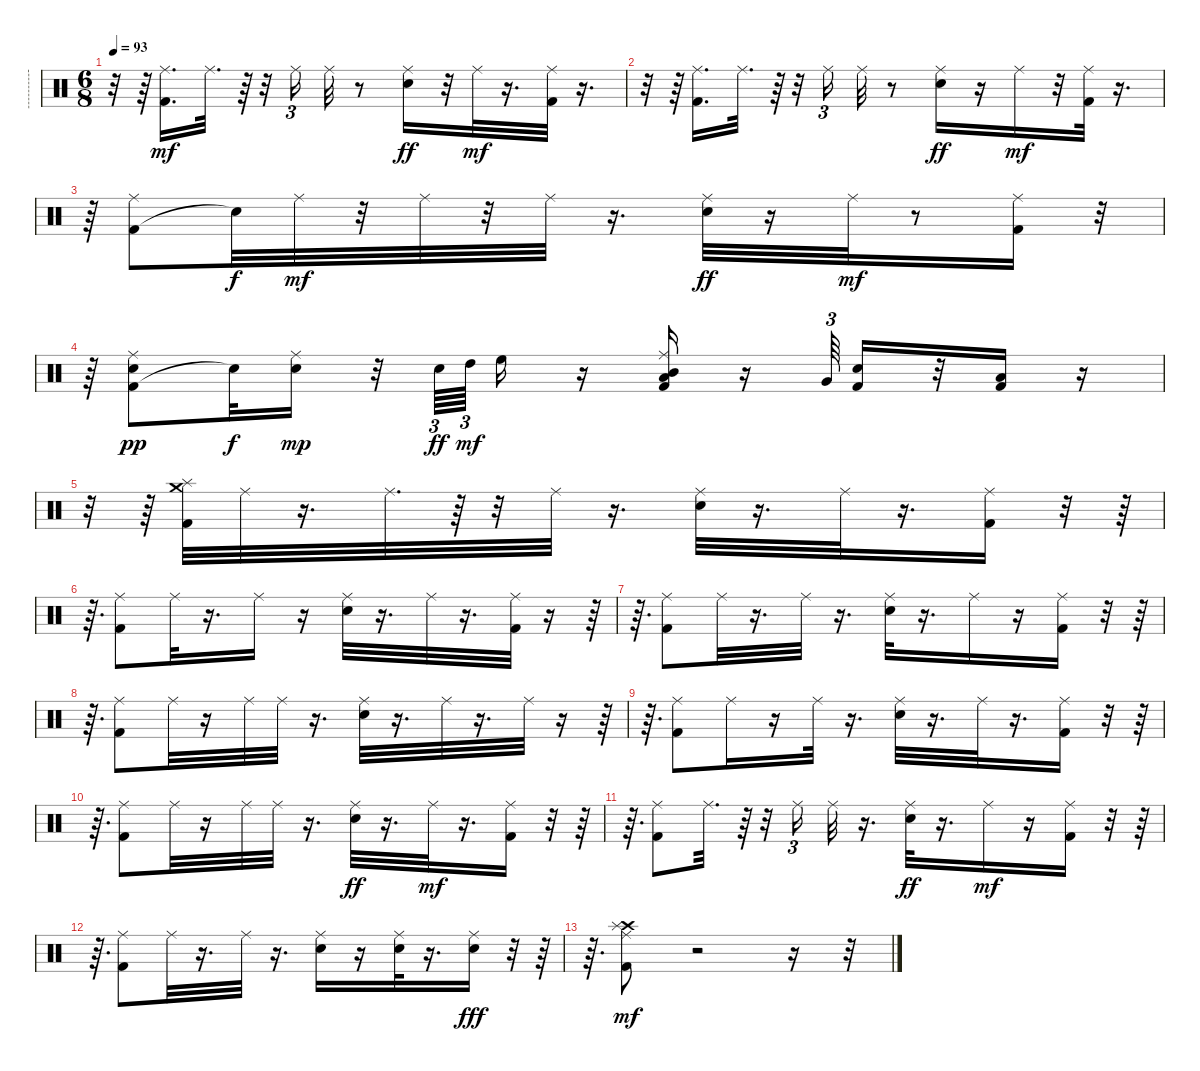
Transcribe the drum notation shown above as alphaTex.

\track ("-----------------------------------" "----------") {instrument percussion}
\staff {score}
\articulation defaults
\ts (6 8)
\tempo 93
\clef neutral
\ks c
r.32{dy mf} r.64 ("Kick (hit) 2" "Ride (middle)").16{d} "Ride (middle)".32{d} r.64 r.32 "Ride (middle)".16{tu (3 2)} "Ride (middle)".32 r.8 ("Ride (middle)" "Snare (hit) 2").16{dy ff} r.32 "Ride (middle)".32{dy mf} r.16{d} ("Kick (hit) 2" "Ride (middle)").32 r.16{d} |
r.32 r.64 ("Kick (hit) 2" "Ride (middle)").16{d} "Ride (middle)".32{d} r.64 r.32 "Ride (middle)".16{tu (3 2)} "Ride (middle)".32 r.8 ("Ride (middle)" "Snare (hit) 2").16{dy ff} r.16 "Ride (middle)".16{dy mf} r.32 ("Kick (hit) 2" "Ride (middle)").32 r.16{d} |
r.64 ("Kick (hit) 2" "Ride (middle)").8 "Snare (hit)"{t}.32{dy f} "Ride (middle)".32{dy mf} r.32 "Ride (middle)".32 r.32 "Ride (middle)".32 r.16{d} ("Ride (middle)" "Snare (hit) 2").32{dy ff} r.16 "Ride (middle)".32{dy mf} r.8 ("Kick (hit) 2" "Ride (middle)").16 r.32 |
r.64 ("Kick (hit) 2" "Ride (middle)" "Snare (hit) 2").8{dy pp} "Snare (hit)"{t}.32{dy f} ("Ride (middle)" "Snare (hit) 2").16{dy mp} r.32 "Snare (hit) 2".64{tu (3 2) dy ff} "High Tom (hit)".64{tu (3 2) dy mf beam splitsecondary} "High Floor Tom (hit)".16 r.16 ("Kick (hit) 2" "Ride (middle)" "Low Tom (hit)" "Mid Tom (hit)").16 r.16 "Very Low Tom (hit)".64{tu (3 2)} ("Kick (hit) 2" "Snare (hit) 2").16 r.32 ("Kick (hit) 2" "Low Floor Tom (hit)").16 r.16 |
r.32 r.64 ("Splash (hit)" "Crash medium (hit)" "Kick (hit) 2").32 "Ride (middle)".32 r.16{d} "Ride (middle)".32{d} r.64 r.32 "Ride (middle)".32 r.16{d} ("Ride (middle)" "Snare (hit) 2").32 r.16{d} "Ride (middle)".32 r.16{d} ("Kick (hit) 2" "Ride (middle)").16 r.32 r.64 |
r.64{d} ("Kick (hit) 2" "Ride (middle)").8 "Ride (middle)".32{volume 15} r.16{d} "Ride (middle)".16{volume 14} r.16 ("Ride (middle)" "Snare (hit) 2").32{volume 14} r.16{d} "Ride (middle)".32{volume 13} r.16{d} ("Kick (hit) 2" "Ride (middle)").32{volume 13} r.16 r.64 |
r.64{d} ("Kick (hit) 2" "Ride (middle)").8{volume 13} "Ride (middle)".32{volume 13} r.16{d} "Ride (middle)".32{volume 12} r.16{d} ("Ride (middle)" "Snare (hit) 2").32{volume 12} r.16{d} "Ride (middle)".16{volume 12} r.16 ("Kick (hit) 2" "Ride (middle)").16{volume 11} r.32 r.64 |
r.64{d} ("Kick (hit) 2" "Ride (middle)").8{volume 11} "Ride (middle)".32{volume 10} r.16 "Ride (middle)".32 "Ride (middle)".32{volume 10} r.16{d} ("Ride (middle)" "Snare (hit) 2").32{volume 10} r.16{d} "Ride (middle)".32{volume 10} r.16{d} "Ride (middle)".32{volume 10} r.16 r.64 |
r.64{d} ("Kick (hit) 2" "Ride (middle)").8{volume 10} "Ride (middle)".16{volume 9} r.16 "Ride (middle)".32{volume 9} r.16{d} ("Ride (middle)" "Snare (hit) 2").32 r.16{d} "Ride (middle)".32{volume 9} r.16{d} ("Kick (hit) 2" "Ride (middle)").16{volume 9} r.32 r.64 |
r.64{d} ("Kick (hit) 2" "Ride (middle)").8{volume 9} "Ride (middle)".32{volume 9} r.16 "Ride (middle)".32 "Ride (middle)".32 r.16{d} ("Ride (middle)" "Snare (hit) 2").32{dy ff volume 8} r.16{d} "Ride (middle)".32{dy mf volume 8} r.16{d} ("Kick (hit) 2" "Ride (middle)").16{volume 8} r.32 r.64 |
r.64{d} ("Kick (hit) 2" "Ride (middle)").8{volume 8} "Ride (middle)".32{d volume 7} r.64 r.32 "Ride (middle)".16{tu (3 2) volume 7} "Ride (middle)".32{volume 7} r.16{d} ("Ride (middle)" "Snare (hit) 2").32{dy ff volume 7} r.16{d} "Ride (middle)".16{dy mf volume 6} r.16 ("Kick (hit) 2" "Ride (middle)").16{volume 6} r.32 r.64 |
r.64{d} ("Kick (hit) 2" "Ride (middle)").8{volume 6} "Ride (middle)".32{volume 5} r.16{d} "Ride (middle)".32{volume 5} r.16{d} ("Ride (middle)" "Snare (hit) 2").16{volume 4} r.16 ("Ride (middle)" "Snare (hit) 2").32{volume 3} r.16{d} ("Ride (middle)" "Snare (hit) 2").16{dy fff volume 3} r.32 r.64 |
r.64{d} ("Crash high (hit)" "Splash (hit)" "Kick (hit) 2" "Ride (middle)").8{dy mf volume 2} r.2 r.16 r.32
